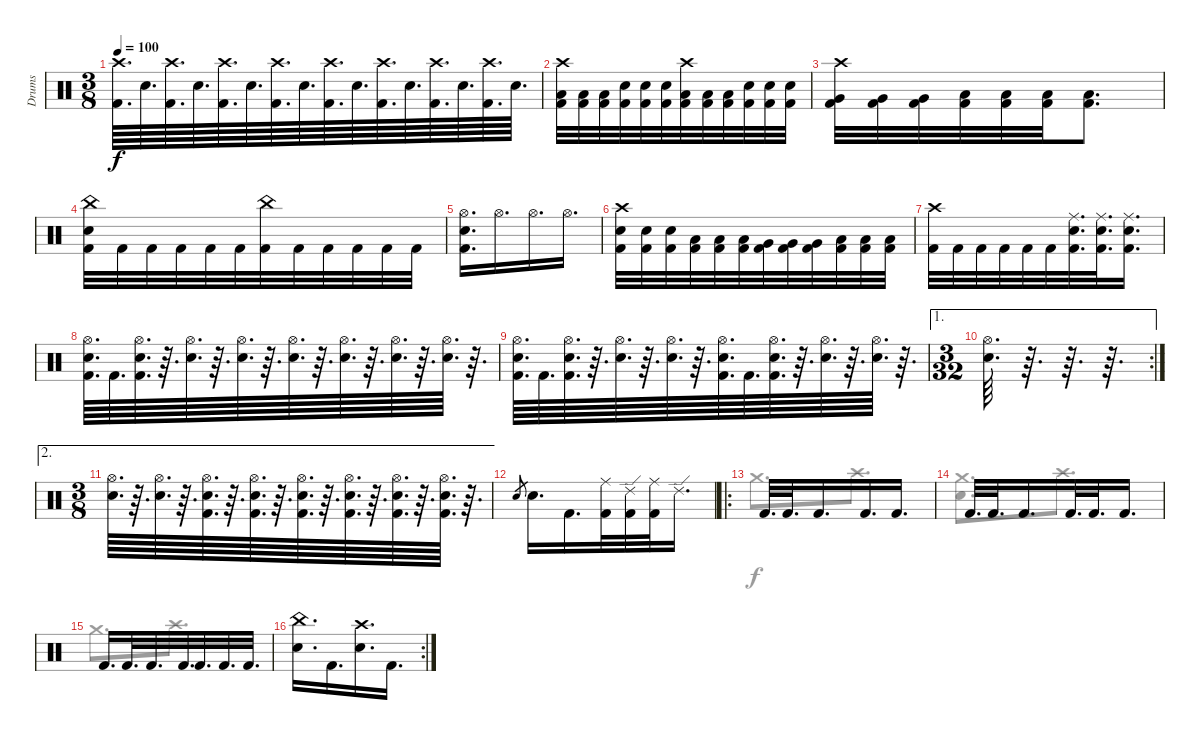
\track ("Drums" "Drums") {instrument percussion}
\staff {score}
\articulation defaults
\voice
\ts (3 8)
\tempo 100
\clef neutral
\ks c
("Crash high (hit)" "Kick (hit) 2").64{d dy f} "Electric Snare (hit)".64{d} ("Crash high (hit)" "Kick (hit) 2").64{d} "Electric Snare (hit)".64{d} ("Crash high (hit)" "Kick (hit) 2").64{d} "Electric Snare (hit)".64{d} ("Crash high (hit)" "Kick (hit) 2").64{d} "Electric Snare (hit)".64{d} ("Crash high (hit)" "Kick (hit) 2").64{d} "Electric Snare (hit)".64{d} ("Crash high (hit)" "Kick (hit) 2").64{d} "Electric Snare (hit)".64{d} ("Crash high (hit)" "Kick (hit) 2").64{d} "Electric Snare (hit)".64{d} ("Crash high (hit)" "Kick (hit) 2").64{d} "Electric Snare (hit)".64{d} |
("Crash high (hit)" "Low Tom (hit)" "Kick (hit) 2").32 ("Low Tom (hit)" "Kick (hit) 2").32 ("Low Tom (hit)" "Kick (hit) 2").32 ("Electric Snare (hit)" "Kick (hit) 2").32 ("Electric Snare (hit)" "Kick (hit) 2").32 ("Electric Snare (hit)" "Kick (hit) 2").32 ("Crash high (hit)" "Low Tom (hit)" "Kick (hit) 2").32 ("Low Tom (hit)" "Kick (hit) 2").32 ("Low Tom (hit)" "Kick (hit) 2").32 ("Electric Snare (hit)" "Kick (hit) 2").32 ("Electric Snare (hit)" "Kick (hit) 2").32 ("Electric Snare (hit)" "Kick (hit) 2").32 |
("Crash high (hit)" "Very Low Tom (hit)" "Kick (hit) 2").32 ("Very Low Tom (hit)" "Kick (hit) 2").32 ("Very Low Tom (hit)" "Kick (hit) 2").32 ("Low Floor Tom (hit)" "Kick (hit) 2").32 ("Low Floor Tom (hit)" "Kick (hit) 2").32 ("Low Floor Tom (hit)" "Kick (hit) 2").32 ("Low Floor Tom (hit)" "Kick (hit) 2").8{d} |
("China (hit)" "Electric Snare (hit)" "Kick (hit) 2").32 "Kick (hit) 2".32 "Kick (hit) 2".32 "Kick (hit) 2".32 "Kick (hit) 2".32 "Kick (hit) 2".32 ("China (hit)" "Kick (hit) 2").32 "Kick (hit) 2".32 "Kick (hit) 2".32 "Kick (hit) 2".32 "Kick (hit) 2".32 "Kick (hit) 2".32 |
("Hi-Hat (open)" "Electric Snare (hit)" "Kick (hit) 2").16{d} "Hi-Hat (open)".16{d} "Hi-Hat (open)".16{d} "Hi-Hat (open)".16{d} |
("Crash high (hit)" "Electric Snare (hit)" "Kick (hit) 2").32 ("Electric Snare (hit)" "Kick (hit) 2").32 ("Electric Snare (hit)" "Kick (hit) 2").32 ("Low Tom (hit)" "Kick (hit) 2").32 ("Low Tom (hit)" "Kick (hit) 2").32 ("Low Tom (hit)" "Kick (hit) 2").32 ("Very Low Tom (hit)" "Kick (hit) 2").32 ("Very Low Tom (hit)" "Kick (hit) 2").32 ("Very Low Tom (hit)" "Kick (hit) 2").32 ("Low Floor Tom (hit)" "Kick (hit) 2").32 ("Low Floor Tom (hit)" "Kick (hit) 2").32 ("Low Floor Tom (hit)" "Kick (hit) 2").32 |
("Crash high (hit)" "Kick (hit) 2").32 "Kick (hit) 2".32 "Kick (hit) 2".32 "Kick (hit) 2".32 "Kick (hit) 2".32 "Kick (hit) 2".32 ("Ride (middle)" "Electric Snare (hit)" "Kick (hit) 2").32{d} ("Ride (middle)" "Electric Snare (hit)" "Kick (hit) 2").32{d} ("Ride (middle)" "Electric Snare (hit)" "Kick (hit) 2").16{d} |
("Hi-Hat (open)" "Electric Snare (hit)" "Kick (hit) 2").64{d} "Kick (hit) 2".64{d} ("Hi-Hat (open)" "Electric Snare (hit)" "Kick (hit) 2").64{d} r.64{d} ("Hi-Hat (open)" "Electric Snare (hit)").64{d} r.64{d} ("Hi-Hat (open)" "Electric Snare (hit)").64{d} r.64{d} ("Hi-Hat (open)" "Electric Snare (hit)").64{d} r.64{d} ("Hi-Hat (open)" "Electric Snare (hit)").64{d} r.64{d} ("Hi-Hat (open)" "Electric Snare (hit)").64{d} r.64{d} ("Hi-Hat (open)" "Electric Snare (hit)").64{d} r.64{d} |
("Hi-Hat (open)" "Electric Snare (hit)" "Kick (hit) 2").64{d} "Kick (hit) 2".64{d} ("Hi-Hat (open)" "Electric Snare (hit)" "Kick (hit) 2").64{d} r.64{d} ("Hi-Hat (open)" "Electric Snare (hit)").64{d} r.64{d} ("Hi-Hat (open)" "Electric Snare (hit)").64{d} r.64{d} ("Hi-Hat (open)" "Electric Snare (hit)" "Kick (hit) 2").64{d} "Kick (hit) 2".64{d} ("Hi-Hat (open)" "Electric Snare (hit)" "Kick (hit) 2").64{d} r.64{d} ("Hi-Hat (open)" "Electric Snare (hit)").64{d} r.64{d} ("Hi-Hat (open)" "Electric Snare (hit)").64{d} r.64{d} |
\ae 1
\rc 2
\ts (3 32)
("Hi-Hat (open)" "Electric Snare (hit)").64{d} r.64{d} r.64{d} r.64{d} |
\ae 2
\ts (3 8)
("Hi-Hat (open)" "Electric Snare (hit)").64{d} r.64{d} ("Hi-Hat (open)" "Electric Snare (hit)").64{d} r.64{d} ("Hi-Hat (open)" "Electric Snare (hit)" "Kick (hit) 2").64{d} r.64{d} ("Hi-Hat (open)" "Electric Snare (hit)" "Kick (hit) 2").64{d} r.64{d} ("Hi-Hat (open)" "Electric Snare (hit)" "Kick (hit) 2").64{d} r.64{d} ("Hi-Hat (open)" "Electric Snare (hit)" "Kick (hit) 2").64{d} r.64{d} ("Hi-Hat (open)" "Electric Snare (hit)" "Kick (hit) 2").64{d} r.64{d} ("Hi-Hat (open)" "Electric Snare (hit)" "Kick (hit) 2").64{d} r.64{d} |
"Electric Snare (hit)".8{gr} "Electric Snare (hit)".16{d} "Kick (hit) 2".16{d} ("Ride (middle)" "Kick (hit) 2").32 ("Ride (edge) 2" "Kick (hit) 2").32 ("Ride (middle)" "Kick (hit) 2").32 "Ride (edge) 2".16{d} |
\ro "Kick (hit) 2".32{d} "Kick (hit) 2".32{d} "Kick (hit) 2".16{d} "Kick (hit) 2".16{d} "Kick (hit) 2".16{d}
|
"Kick (hit) 2".32{d} "Kick (hit) 2".32{d} "Kick (hit) 2".16{d} "Kick (hit) 2".32{d} "Kick (hit) 2".32{d} "Kick (hit) 2".16{d} |
"Kick (hit) 2".16{d} "Kick (hit) 2".32{d} "Kick (hit) 2".32{d} "Kick (hit) 2".32{d} "Kick (hit) 2".32{d} "Kick (hit) 2".32{d} "Kick (hit) 2".32{d} |
\rc 2
("China (hit)" "Electric Snare (hit)").16{d} "Kick (hit) 2".16{d} ("Crash high (hit)" "Electric Snare (hit)").16{d} "Kick (hit) 2".16{d}
\voice
\clef neutral
\ottava regular
\simile none
\ks c
|
|
|
|
|
|
|
|
|
|
|
|
"Crash medium (hit)".8{d} "Crash high (hit)".8{d} |
("Crash medium (hit)" "Electric Snare (hit)").8{d} "Crash high (hit)".8{d} |
"Crash medium (hit)".8{d} "Crash high (hit)".8{d} |
